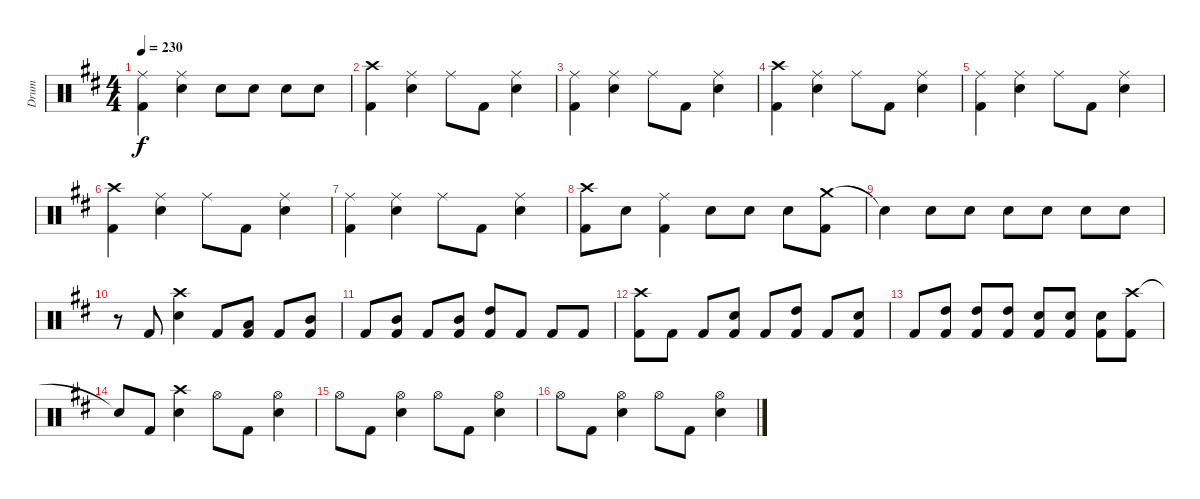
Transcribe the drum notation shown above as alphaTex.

\track ("Drum" "Drum") {instrument percussion}
\staff {score}
\articulation defaults
\ts (4 4)
\tempo 230
\clef neutral
\ks d
("Ride (middle)" "Kick (hit) 2").4{dy f} ("Ride (middle)" "Snare (hit) 2").4 "Snare (hit) 2".8 "Snare (hit) 2".8 "Snare (hit) 2".8 "Snare (hit) 2".8 |
("Crash high (hit)" "Kick (hit) 2").4 ("Ride (middle)" "Snare (hit) 2").4 "Ride (middle)".8 "Kick (hit) 2".8 ("Ride (middle)" "Snare (hit) 2").4 |
("Ride (middle)" "Kick (hit) 2").4 ("Ride (middle)" "Snare (hit) 2").4 "Ride (middle)".8 "Kick (hit) 2".8 ("Ride (middle)" "Snare (hit) 2").4 |
("Crash high (hit)" "Kick (hit) 2").4 ("Ride (middle)" "Snare (hit) 2").4 "Ride (middle)".8 "Kick (hit) 2".8 ("Ride (middle)" "Snare (hit) 2").4 |
("Ride (middle)" "Kick (hit) 2").4 ("Ride (middle)" "Snare (hit) 2").4 "Ride (middle)".8 "Kick (hit) 2".8 ("Ride (middle)" "Snare (hit) 2").4 |
("Crash high (hit)" "Kick (hit) 2").4 ("Ride (middle)" "Snare (hit) 2").4 "Ride (middle)".8 "Kick (hit) 2".8 ("Ride (middle)" "Snare (hit) 2").4 |
("Ride (middle)" "Kick (hit) 2").4 ("Ride (middle)" "Snare (hit) 2").4 "Ride (middle)".8 "Kick (hit) 2".8 ("Ride (middle)" "Snare (hit) 2").4 |
("Crash high (hit)" "Kick (hit) 2").8 "Snare (hit) 2".8 ("Ride (middle)" "Kick (hit) 2").4 "Snare (hit) 2".8 "Snare (hit) 2".8 "Snare (hit) 2".8 ("Crash medium (hit)" "Kick (hit) 2").8 |
"Snare (hit)"{t}.4 "Snare (hit) 2".8 "Snare (hit) 2".8 "Snare (hit) 2".8 "Snare (hit) 2".8 "Snare (hit) 2".8 "Snare (hit) 2".8 |
r.8 "Kick (hit) 2".8 ("Crash high (hit)" "Snare (hit) 2").4 "Kick (hit) 2".8 ("Low Tom (hit)" "Kick (hit) 2").8 "Kick (hit) 2".8 ("Mid Tom (hit)" "Kick (hit) 2").8 |
"Kick (hit) 2".8 ("Mid Tom (hit)" "Kick (hit) 2").8 "Kick (hit) 2".8 ("Mid Tom (hit)" "Kick (hit) 2").8 ("High Tom (hit)" "Kick (hit) 2").8 "Kick (hit) 2".8 "Kick (hit) 2".8 "Kick (hit) 2".8 |
("Crash high (hit)" "Kick (hit) 2").8 "Kick (hit) 2".8 "Kick (hit) 2".8 ("Snare (hit) 2" "Kick (hit) 2").8 "Kick (hit) 2".8 ("High Tom (hit)" "Kick (hit) 2").8 "Kick (hit) 2".8 ("Snare (hit) 2" "Kick (hit) 2").8 |
"Kick (hit) 2".8 ("High Tom (hit)" "Kick (hit) 2").8 ("High Tom (hit)" "Kick (hit) 2").8 ("High Tom (hit)" "Kick (hit) 2").8 ("Snare (hit) 2" "Kick (hit) 2").8 ("Snare (hit) 2" "Kick (hit) 2").8 ("Snare (hit) 2" "Kick (hit) 2").8 ("Crash high (hit)" "Kick (hit) 2").8 |
"Snare (hit)"{t}.8 "Kick (hit) 2".8 ("Crash high (hit)" "Snare (hit) 2").4 "Hi-Hat (open)".8 "Kick (hit) 2".8 ("Hi-Hat (open)" "Snare (hit) 2").4 |
"Hi-Hat (open)".8 "Kick (hit) 2".8 ("Hi-Hat (open)" "Snare (hit) 2").4 "Hi-Hat (open)".8 "Kick (hit) 2".8 ("Hi-Hat (open)" "Snare (hit) 2").4 |
"Hi-Hat (open)".8 "Kick (hit) 2".8 ("Hi-Hat (open)" "Snare (hit) 2").4 "Hi-Hat (open)".8 "Kick (hit) 2".8 ("Hi-Hat (open)" "Snare (hit) 2").4
